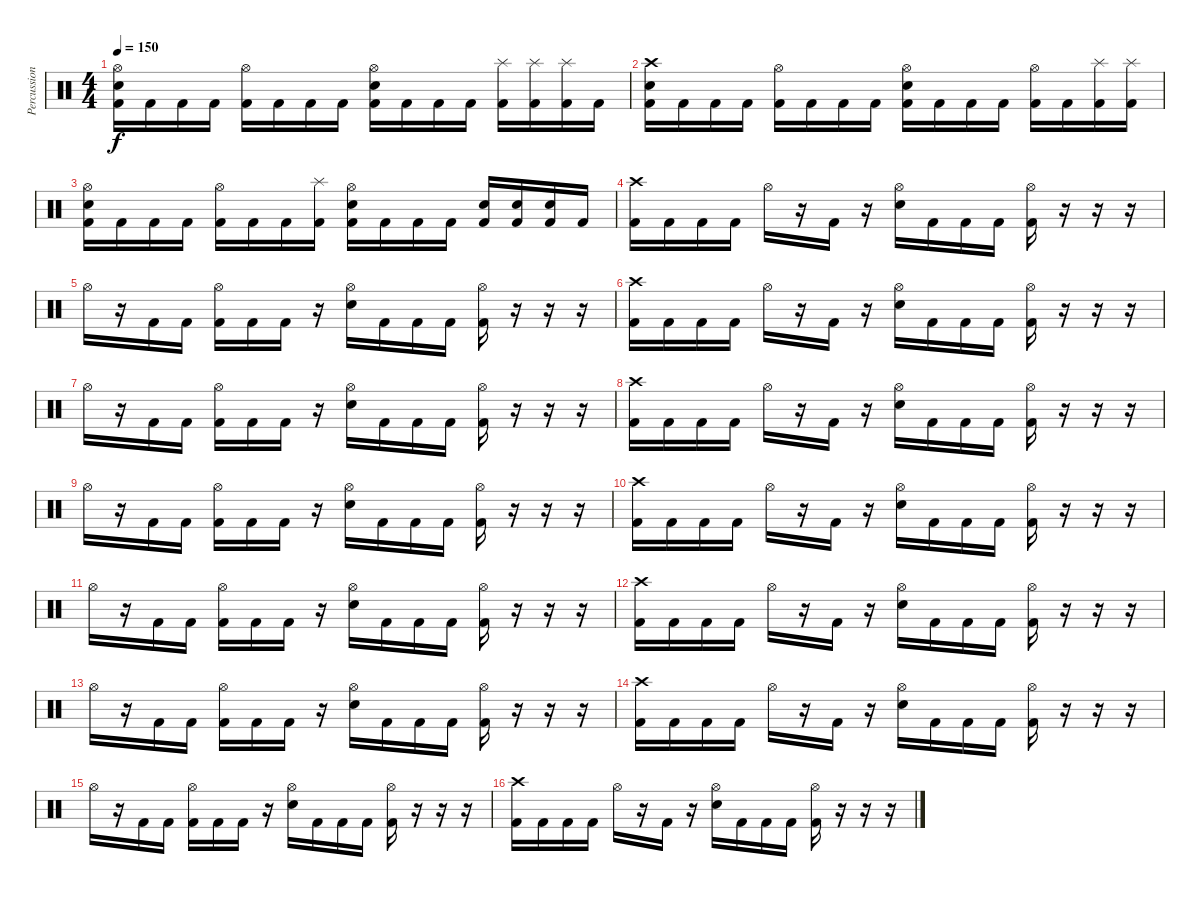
\track ("Percussion" "Percussion") {instrument percussion}
\staff {score}
\articulation defaults
\ts (4 4)
\tempo 150
\clef neutral
\ks c
("Hi-Hat (open)" "Snare (hit) 2" "Kick (hit) 2").16{dy f} "Kick (hit) 2".16 "Kick (hit) 2".16 "Kick (hit) 2".16 ("Hi-Hat (open)" "Kick (hit) 2").16 "Kick (hit) 2".16 "Kick (hit) 2".16 "Kick (hit) 2".16 ("Hi-Hat (open)" "Snare (hit) 2" "Kick (hit) 2").16 "Kick (hit) 2".16 "Kick (hit) 2".16 "Kick (hit) 2".16 ("Splash (hit)" "Kick (hit) 2").16 ("Splash (hit)" "Kick (hit) 2").16 ("Splash (hit)" "Kick (hit) 2").16 "Kick (hit) 2".16 |
("Crash high (hit)" "Snare (hit) 2" "Kick (hit) 2").16 "Kick (hit) 2".16 "Kick (hit) 2".16 "Kick (hit) 2".16 ("Hi-Hat (open)" "Kick (hit) 2").16 "Kick (hit) 2".16 "Kick (hit) 2".16 "Kick (hit) 2".16 ("Hi-Hat (open)" "Snare (hit) 2" "Kick (hit) 2").16 "Kick (hit) 2".16 "Kick (hit) 2".16 "Kick (hit) 2".16 ("Hi-Hat (open)" "Kick (hit) 2").16 "Kick (hit) 2".16 ("Splash (hit)" "Kick (hit) 2").16 ("Splash (hit)" "Kick (hit) 2").16 |
("Hi-Hat (open)" "Snare (hit) 2" "Kick (hit) 2").16 "Kick (hit) 2".16 "Kick (hit) 2".16 "Kick (hit) 2".16 ("Hi-Hat (open)" "Kick (hit) 2").16 "Kick (hit) 2".16 "Kick (hit) 2".16 ("Splash (hit)" "Kick (hit) 2").16 ("Hi-Hat (open)" "Snare (hit) 2" "Kick (hit) 2").16 "Kick (hit) 2".16 "Kick (hit) 2".16 "Kick (hit) 2".16 ("Snare (hit) 2" "Kick (hit) 2").16 ("Snare (hit) 2" "Kick (hit) 2").16 ("Snare (hit) 2" "Kick (hit) 2").16 "Kick (hit) 2".16 |
("Crash high (hit)" "Kick (hit) 2").16 "Kick (hit) 2".16 "Kick (hit) 2".16 "Kick (hit) 2".16 "Hi-Hat (open)".16 r.16 "Kick (hit) 2".16 r.16 ("Hi-Hat (open)" "Snare (hit) 2").16 "Kick (hit) 2".16 "Kick (hit) 2".16 "Kick (hit) 2".16 ("Hi-Hat (open)" "Kick (hit) 2").16 r.16 r.16 r.16 |
"Hi-Hat (open)".16 r.16 "Kick (hit) 2".16 "Kick (hit) 2".16 ("Hi-Hat (open)" "Kick (hit) 2").16 "Kick (hit) 2".16 "Kick (hit) 2".16 r.16 ("Hi-Hat (open)" "Snare (hit) 2").16 "Kick (hit) 2".16 "Kick (hit) 2".16 "Kick (hit) 2".16 ("Hi-Hat (open)" "Kick (hit) 2").16 r.16 r.16 r.16 |
("Crash high (hit)" "Kick (hit) 2").16 "Kick (hit) 2".16 "Kick (hit) 2".16 "Kick (hit) 2".16 "Hi-Hat (open)".16 r.16 "Kick (hit) 2".16 r.16 ("Hi-Hat (open)" "Snare (hit) 2").16 "Kick (hit) 2".16 "Kick (hit) 2".16 "Kick (hit) 2".16 ("Hi-Hat (open)" "Kick (hit) 2").16 r.16 r.16 r.16 |
"Hi-Hat (open)".16 r.16 "Kick (hit) 2".16 "Kick (hit) 2".16 ("Hi-Hat (open)" "Kick (hit) 2").16 "Kick (hit) 2".16 "Kick (hit) 2".16 r.16 ("Hi-Hat (open)" "Snare (hit) 2").16 "Kick (hit) 2".16 "Kick (hit) 2".16 "Kick (hit) 2".16 ("Hi-Hat (open)" "Kick (hit) 2").16 r.16 r.16 r.16 |
("Crash high (hit)" "Kick (hit) 2").16 "Kick (hit) 2".16 "Kick (hit) 2".16 "Kick (hit) 2".16 "Hi-Hat (open)".16 r.16 "Kick (hit) 2".16 r.16 ("Hi-Hat (open)" "Snare (hit) 2").16 "Kick (hit) 2".16 "Kick (hit) 2".16 "Kick (hit) 2".16 ("Hi-Hat (open)" "Kick (hit) 2").16 r.16 r.16 r.16 |
"Hi-Hat (open)".16 r.16 "Kick (hit) 2".16 "Kick (hit) 2".16 ("Hi-Hat (open)" "Kick (hit) 2").16 "Kick (hit) 2".16 "Kick (hit) 2".16 r.16 ("Hi-Hat (open)" "Snare (hit) 2").16 "Kick (hit) 2".16 "Kick (hit) 2".16 "Kick (hit) 2".16 ("Hi-Hat (open)" "Kick (hit) 2").16 r.16 r.16 r.16 |
("Crash high (hit)" "Kick (hit) 2").16 "Kick (hit) 2".16 "Kick (hit) 2".16 "Kick (hit) 2".16 "Hi-Hat (open)".16 r.16 "Kick (hit) 2".16 r.16 ("Hi-Hat (open)" "Snare (hit) 2").16 "Kick (hit) 2".16 "Kick (hit) 2".16 "Kick (hit) 2".16 ("Hi-Hat (open)" "Kick (hit) 2").16 r.16 r.16 r.16 |
"Hi-Hat (open)".16 r.16 "Kick (hit) 2".16 "Kick (hit) 2".16 ("Hi-Hat (open)" "Kick (hit) 2").16 "Kick (hit) 2".16 "Kick (hit) 2".16 r.16 ("Hi-Hat (open)" "Snare (hit) 2").16 "Kick (hit) 2".16 "Kick (hit) 2".16 "Kick (hit) 2".16 ("Hi-Hat (open)" "Kick (hit) 2").16 r.16 r.16 r.16 |
("Crash high (hit)" "Kick (hit) 2").16 "Kick (hit) 2".16 "Kick (hit) 2".16 "Kick (hit) 2".16 "Hi-Hat (open)".16 r.16 "Kick (hit) 2".16 r.16 ("Hi-Hat (open)" "Snare (hit) 2").16 "Kick (hit) 2".16 "Kick (hit) 2".16 "Kick (hit) 2".16 ("Hi-Hat (open)" "Kick (hit) 2").16 r.16 r.16 r.16 |
"Hi-Hat (open)".16 r.16 "Kick (hit) 2".16 "Kick (hit) 2".16 ("Hi-Hat (open)" "Kick (hit) 2").16 "Kick (hit) 2".16 "Kick (hit) 2".16 r.16 ("Hi-Hat (open)" "Snare (hit) 2").16 "Kick (hit) 2".16 "Kick (hit) 2".16 "Kick (hit) 2".16 ("Hi-Hat (open)" "Kick (hit) 2").16 r.16 r.16 r.16 |
("Crash high (hit)" "Kick (hit) 2").16 "Kick (hit) 2".16 "Kick (hit) 2".16 "Kick (hit) 2".16 "Hi-Hat (open)".16 r.16 "Kick (hit) 2".16 r.16 ("Hi-Hat (open)" "Snare (hit) 2").16 "Kick (hit) 2".16 "Kick (hit) 2".16 "Kick (hit) 2".16 ("Hi-Hat (open)" "Kick (hit) 2").16 r.16 r.16 r.16 |
"Hi-Hat (open)".16 r.16 "Kick (hit) 2".16 "Kick (hit) 2".16 ("Hi-Hat (open)" "Kick (hit) 2").16 "Kick (hit) 2".16 "Kick (hit) 2".16 r.16 ("Hi-Hat (open)" "Snare (hit) 2").16 "Kick (hit) 2".16 "Kick (hit) 2".16 "Kick (hit) 2".16 ("Hi-Hat (open)" "Kick (hit) 2").16 r.16 r.16 r.16 |
("Crash high (hit)" "Kick (hit) 2").16 "Kick (hit) 2".16 "Kick (hit) 2".16 "Kick (hit) 2".16 "Hi-Hat (open)".16 r.16 "Kick (hit) 2".16 r.16 ("Hi-Hat (open)" "Snare (hit) 2").16 "Kick (hit) 2".16 "Kick (hit) 2".16 "Kick (hit) 2".16 ("Hi-Hat (open)" "Kick (hit) 2").16 r.16 r.16 r.16
